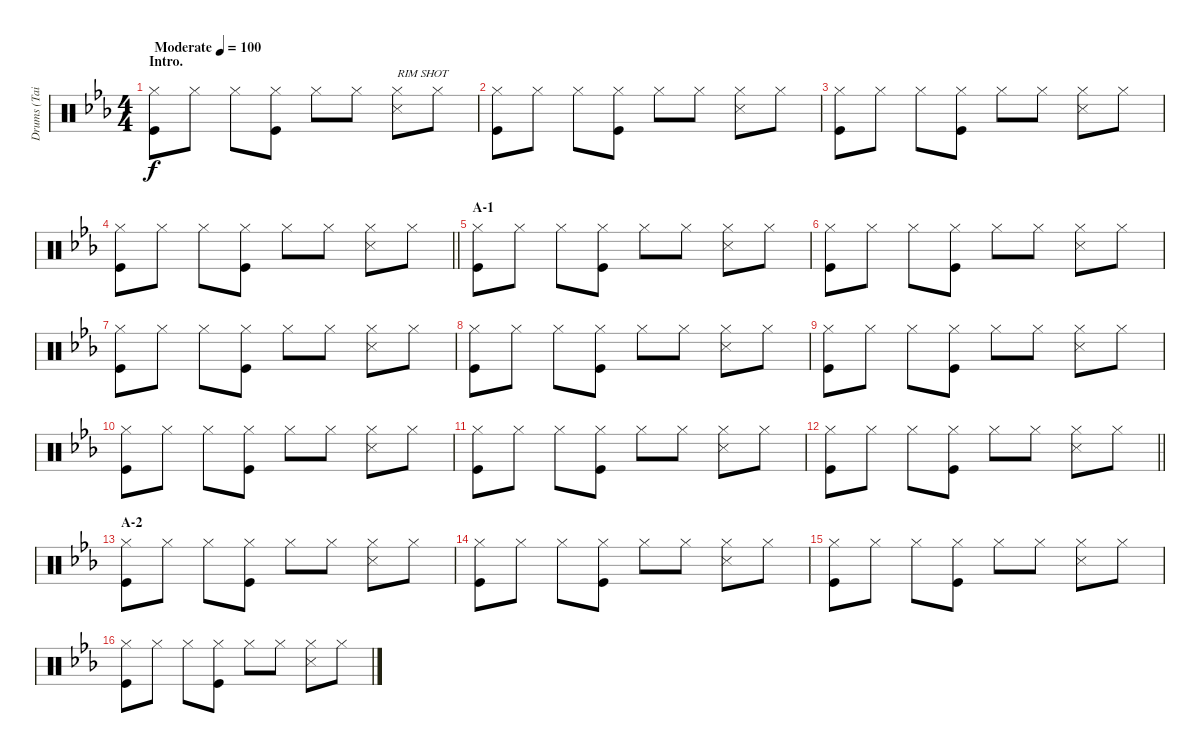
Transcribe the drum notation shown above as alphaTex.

\track ("Drums (Tainaka Ritsu)" "Drums (Tai") {instrument percussion}
\staff {score}
\articulation defaults
\ts (4 4)
\section ("" "Intro.")
\tempo (100 "Moderate")
\clef neutral
\ks eb
("Hi-Hat (closed)" "Kick (hit)").8{dy f} "Hi-Hat (closed)".8 "Hi-Hat (closed)".8 ("Hi-Hat (closed)" "Kick (hit)").8 "Hi-Hat (closed)".8 "Hi-Hat (closed)".8 ("Hi-Hat (closed)" "Snare (side stick) 3").8{txt "RIM SHOT"} "Hi-Hat (closed)".8 |
("Hi-Hat (closed)" "Kick (hit)").8 "Hi-Hat (closed)".8 "Hi-Hat (closed)".8 ("Hi-Hat (closed)" "Kick (hit)").8 "Hi-Hat (closed)".8 "Hi-Hat (closed)".8 ("Hi-Hat (closed)" "Snare (side stick) 3").8 "Hi-Hat (closed)".8 |
("Hi-Hat (closed)" "Kick (hit)").8 "Hi-Hat (closed)".8 "Hi-Hat (closed)".8 ("Hi-Hat (closed)" "Kick (hit)").8 "Hi-Hat (closed)".8 "Hi-Hat (closed)".8 ("Hi-Hat (closed)" "Snare (side stick) 3").8 "Hi-Hat (closed)".8 |
\barLineRight lightlight
("Hi-Hat (closed)" "Kick (hit)").8 "Hi-Hat (closed)".8 "Hi-Hat (closed)".8 ("Hi-Hat (closed)" "Kick (hit)").8 "Hi-Hat (closed)".8 "Hi-Hat (closed)".8 ("Hi-Hat (closed)" "Snare (side stick) 3").8 "Hi-Hat (closed)".8 |
\section ("" "A-1")
("Hi-Hat (closed)" "Kick (hit)").8 "Hi-Hat (closed)".8 "Hi-Hat (closed)".8 ("Hi-Hat (closed)" "Kick (hit)").8 "Hi-Hat (closed)".8 "Hi-Hat (closed)".8 ("Hi-Hat (closed)" "Snare (side stick) 3").8 "Hi-Hat (closed)".8 |
("Hi-Hat (closed)" "Kick (hit)").8 "Hi-Hat (closed)".8 "Hi-Hat (closed)".8 ("Hi-Hat (closed)" "Kick (hit)").8 "Hi-Hat (closed)".8 "Hi-Hat (closed)".8 ("Hi-Hat (closed)" "Snare (side stick) 3").8 "Hi-Hat (closed)".8 |
("Hi-Hat (closed)" "Kick (hit)").8 "Hi-Hat (closed)".8 "Hi-Hat (closed)".8 ("Hi-Hat (closed)" "Kick (hit)").8 "Hi-Hat (closed)".8 "Hi-Hat (closed)".8 ("Hi-Hat (closed)" "Snare (side stick) 3").8 "Hi-Hat (closed)".8 |
("Hi-Hat (closed)" "Kick (hit)").8 "Hi-Hat (closed)".8 "Hi-Hat (closed)".8 ("Hi-Hat (closed)" "Kick (hit)").8 "Hi-Hat (closed)".8 "Hi-Hat (closed)".8 ("Hi-Hat (closed)" "Snare (side stick) 3").8 "Hi-Hat (closed)".8 |
("Hi-Hat (closed)" "Kick (hit)").8 "Hi-Hat (closed)".8 "Hi-Hat (closed)".8 ("Hi-Hat (closed)" "Kick (hit)").8 "Hi-Hat (closed)".8 "Hi-Hat (closed)".8 ("Hi-Hat (closed)" "Snare (side stick) 3").8 "Hi-Hat (closed)".8 |
("Hi-Hat (closed)" "Kick (hit)").8 "Hi-Hat (closed)".8 "Hi-Hat (closed)".8 ("Hi-Hat (closed)" "Kick (hit)").8 "Hi-Hat (closed)".8 "Hi-Hat (closed)".8 ("Hi-Hat (closed)" "Snare (side stick) 3").8 "Hi-Hat (closed)".8 |
("Hi-Hat (closed)" "Kick (hit)").8 "Hi-Hat (closed)".8 "Hi-Hat (closed)".8 ("Hi-Hat (closed)" "Kick (hit)").8 "Hi-Hat (closed)".8 "Hi-Hat (closed)".8 ("Hi-Hat (closed)" "Snare (side stick) 3").8 "Hi-Hat (closed)".8 |
\barLineRight lightlight
("Hi-Hat (closed)" "Kick (hit)").8 "Hi-Hat (closed)".8 "Hi-Hat (closed)".8 ("Hi-Hat (closed)" "Kick (hit)").8 "Hi-Hat (closed)".8 "Hi-Hat (closed)".8 ("Hi-Hat (closed)" "Snare (side stick) 3").8 "Hi-Hat (closed)".8 |
\section ("" "A-2")
("Hi-Hat (closed)" "Kick (hit)").8 "Hi-Hat (closed)".8 "Hi-Hat (closed)".8 ("Hi-Hat (closed)" "Kick (hit)").8 "Hi-Hat (closed)".8 "Hi-Hat (closed)".8 ("Hi-Hat (closed)" "Snare (side stick) 3").8 "Hi-Hat (closed)".8 |
("Hi-Hat (closed)" "Kick (hit)").8 "Hi-Hat (closed)".8 "Hi-Hat (closed)".8 ("Hi-Hat (closed)" "Kick (hit)").8 "Hi-Hat (closed)".8 "Hi-Hat (closed)".8 ("Hi-Hat (closed)" "Snare (side stick) 3").8 "Hi-Hat (closed)".8 |
("Hi-Hat (closed)" "Kick (hit)").8 "Hi-Hat (closed)".8 "Hi-Hat (closed)".8 ("Hi-Hat (closed)" "Kick (hit)").8 "Hi-Hat (closed)".8 "Hi-Hat (closed)".8 ("Hi-Hat (closed)" "Snare (side stick) 3").8 "Hi-Hat (closed)".8 |
("Hi-Hat (closed)" "Kick (hit)").8 "Hi-Hat (closed)".8 "Hi-Hat (closed)".8 ("Hi-Hat (closed)" "Kick (hit)").8 "Hi-Hat (closed)".8 "Hi-Hat (closed)".8 ("Hi-Hat (closed)" "Snare (side stick) 3").8 "Hi-Hat (closed)".8
